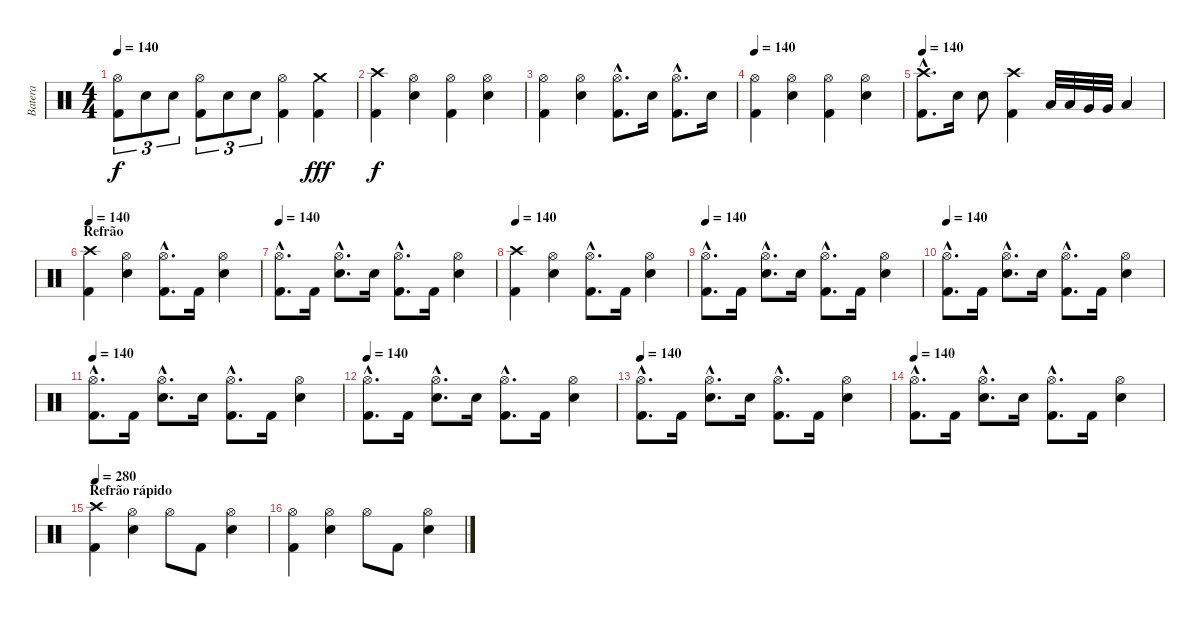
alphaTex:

\track ("Batera" "Batera") {instrument percussion}
\staff {score}
\articulation defaults
\ts (4 4)
\tempo 140
\clef neutral
\ks c
("Hi-Hat (open)" "Kick (hit) 2").8{tu (3 2) dy f} "Snare (hit) 2".8{tu (3 2)} "Snare (hit) 2".8{tu (3 2)} ("Hi-Hat (open)" "Kick (hit) 2").8{tu (3 2)} "Snare (hit) 2".8{tu (3 2)} "Snare (hit) 2".8{tu (3 2)} ("Hi-Hat (open)" "Kick (hit) 2").4 ("Crash medium (hit)" "Kick (hit) 2").4{dy fff} |
("Crash high (hit)" "Kick (hit) 2").4{dy f} ("Hi-Hat (open)" "Snare (hit) 2").4 ("Hi-Hat (open)" "Kick (hit) 2").4 ("Hi-Hat (open)" "Snare (hit) 2").4 |
("Hi-Hat (open)" "Kick (hit) 2").4 ("Hi-Hat (open)" "Snare (hit) 2").4 ("Hi-Hat (open)"{hac} "Kick (hit) 2"{hac}).8{d} "Snare (hit) 2".16 ("Hi-Hat (open)"{hac} "Kick (hit) 2"{hac}).8{d} "Snare (hit) 2".16 |
\tempo 140
("Hi-Hat (open)" "Kick (hit) 2").4 ("Hi-Hat (open)" "Snare (hit) 2").4 ("Hi-Hat (open)" "Kick (hit) 2").4 ("Hi-Hat (open)" "Snare (hit) 2").4 |
\tempo 140
("Crash high (hit)"{hac} "Kick (hit) 2"{hac}).8{d} "Snare (hit) 2".16 "Snare (hit) 2".8 ("Crash high (hit)" "Kick (hit) 2").4 "Low Tom (hit)".32 "Low Tom (hit)".32 "Very Low Tom (hit)".32 "Very Low Tom (hit)".32 "Low Floor Tom (hit)".4 |
\section ("" "Refrão")
\tempo 140
("Crash high (hit)" "Kick (hit) 2").4 ("Hi-Hat (open)" "Snare (hit) 2").4 ("Hi-Hat (open)"{hac} "Kick (hit) 2"{hac}).8{d} "Kick (hit) 2".16 ("Hi-Hat (open)" "Snare (hit) 2").4 |
\tempo 140
("Hi-Hat (open)"{hac} "Kick (hit) 2"{hac}).8{d} "Kick (hit) 2".16 ("Hi-Hat (open)"{hac} "Snare (hit) 2"{hac}).8{d} "Snare (hit) 2".16 ("Hi-Hat (open)"{hac} "Kick (hit) 2"{hac}).8{d} "Kick (hit) 2".16 ("Hi-Hat (open)" "Snare (hit) 2").4 |
\tempo 140
("Crash high (hit)" "Kick (hit) 2").4 ("Hi-Hat (open)" "Snare (hit) 2").4 ("Hi-Hat (open)"{hac} "Kick (hit) 2"{hac}).8{d} "Kick (hit) 2".16 ("Hi-Hat (open)" "Snare (hit) 2").4 |
\tempo 140
("Hi-Hat (open)"{hac} "Kick (hit) 2"{hac}).8{d} "Kick (hit) 2".16 ("Hi-Hat (open)"{hac} "Snare (hit) 2"{hac}).8{d} "Snare (hit) 2".16 ("Hi-Hat (open)"{hac} "Kick (hit) 2"{hac}).8{d} "Kick (hit) 2".16 ("Hi-Hat (open)" "Snare (hit) 2").4 |
\tempo 140
("Hi-Hat (open)"{hac} "Kick (hit) 2"{hac}).8{d} "Kick (hit) 2".16 ("Hi-Hat (open)"{hac} "Snare (hit) 2"{hac}).8{d} "Snare (hit) 2".16 ("Hi-Hat (open)"{hac} "Kick (hit) 2"{hac}).8{d} "Kick (hit) 2".16 ("Hi-Hat (open)" "Snare (hit) 2").4 |
\tempo 140
("Hi-Hat (open)"{hac} "Kick (hit) 2"{hac}).8{d} "Kick (hit) 2".16 ("Hi-Hat (open)"{hac} "Snare (hit) 2"{hac}).8{d} "Snare (hit) 2".16 ("Hi-Hat (open)"{hac} "Kick (hit) 2"{hac}).8{d} "Kick (hit) 2".16 ("Hi-Hat (open)" "Snare (hit) 2").4 |
\tempo 140
("Hi-Hat (open)"{hac} "Kick (hit) 2"{hac}).8{d} "Kick (hit) 2".16 ("Hi-Hat (open)"{hac} "Snare (hit) 2"{hac}).8{d} "Snare (hit) 2".16 ("Hi-Hat (open)"{hac} "Kick (hit) 2"{hac}).8{d} "Kick (hit) 2".16 ("Hi-Hat (open)" "Snare (hit) 2").4 |
\tempo 140
("Hi-Hat (open)"{hac} "Kick (hit) 2"{hac}).8{d} "Kick (hit) 2".16 ("Hi-Hat (open)"{hac} "Snare (hit) 2"{hac}).8{d} "Snare (hit) 2".16 ("Hi-Hat (open)"{hac} "Kick (hit) 2"{hac}).8{d} "Kick (hit) 2".16 ("Hi-Hat (open)" "Snare (hit) 2").4 |
\tempo 140
("Hi-Hat (open)"{hac} "Kick (hit) 2"{hac}).8{d} "Kick (hit) 2".16 ("Hi-Hat (open)"{hac} "Snare (hit) 2"{hac}).8{d} "Snare (hit) 2".16 ("Hi-Hat (open)"{hac} "Kick (hit) 2"{hac}).8{d} "Kick (hit) 2".16 ("Hi-Hat (open)" "Snare (hit) 2").4 |
\section ("" "Refrão rápido")
\tempo 280
("Crash high (hit)" "Kick (hit) 2").4 ("Hi-Hat (open)" "Snare (hit) 2").4 "Hi-Hat (open)".8 "Kick (hit) 2".8 ("Hi-Hat (open)" "Snare (hit) 2").4 |
("Hi-Hat (open)" "Kick (hit) 2").4 ("Hi-Hat (open)" "Snare (hit) 2").4 "Hi-Hat (open)".8 "Kick (hit) 2".8 ("Hi-Hat (open)" "Snare (hit) 2").4
